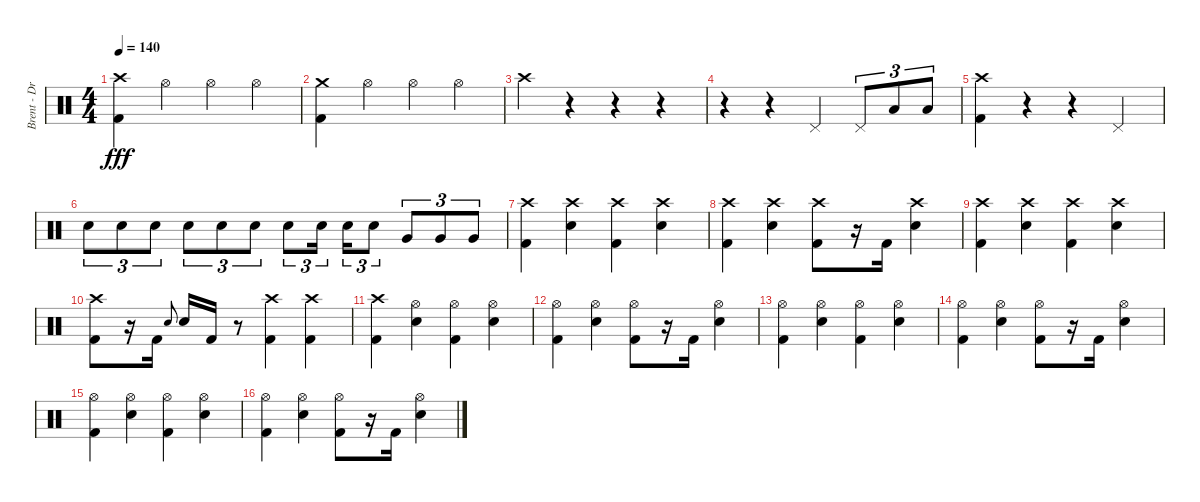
\track ("Brent - Drums" "Brent - Dr") {instrument percussion}
\staff {score}
\articulation defaults
\ts (4 4)
\tempo 140
\clef neutral
\ks c
("Crash high (hit)" "Kick (hit) 2").4{dy fff} "Hi-Hat (open)".4 "Hi-Hat (open)".4 "Hi-Hat (open)".4 |
("Crash medium (hit)" "Kick (hit) 2").4 "Hi-Hat (open)".4 "Hi-Hat (open)".4 "Hi-Hat (open)".4 |
"Crash high (hit)".4 r.4 r.4 r.4 |
r.4 r.4 "Pedal Hi-Hat (hit)".4 "Pedal Hi-Hat (hit)".8{tu (3 2)} "Low Tom (hit)".8{tu (3 2)} "Low Tom (hit)".8{tu (3 2)} |
("Crash high (hit)" "Kick (hit) 2").4 r.4 r.4 "Pedal Hi-Hat (hit)".4 |
"Snare (hit) 2".8{tu (3 2)} "Snare (hit) 2".8{tu (3 2)} "Snare (hit) 2".8{tu (3 2)} "Snare (hit) 2".8{tu (3 2)} "Snare (hit) 2".8{tu (3 2)} "Snare (hit) 2".8{tu (3 2)} "Snare (hit) 2".8{tu (3 2)} "Snare (hit) 2".16{tu (3 2) beam splitsecondary} "Snare (hit) 2".16{tu (3 2)} "Snare (hit) 2".8{tu (3 2)} "Very Low Tom (hit)".8{tu (3 2)} "Very Low Tom (hit)".8{tu (3 2)} "Very Low Tom (hit)".8{tu (3 2)} |
("Crash high (hit)" "Kick (hit) 2").4 ("Crash high (hit)" "Snare (hit) 2").4 ("Crash high (hit)" "Kick (hit) 2").4 ("Crash high (hit)" "Snare (hit) 2").4 |
("Crash high (hit)" "Kick (hit) 2").4 ("Crash high (hit)" "Snare (hit) 2").4 ("Crash high (hit)" "Kick (hit) 2").8 r.16 "Kick (hit) 2".16 ("Crash high (hit)" "Snare (hit) 2").4 |
("Crash high (hit)" "Kick (hit) 2").4 ("Crash high (hit)" "Snare (hit) 2").4 ("Crash high (hit)" "Kick (hit) 2").4 ("Crash high (hit)" "Snare (hit) 2").4 |
("Crash high (hit)" "Kick (hit) 2").8 r.16 "Kick (hit) 2".16 "Snare (hit) 2".8{gr onbeat} "Snare (hit) 2".16 "Kick (hit) 2".16 r.8 ("Crash high (hit)" "Kick (hit) 2").4 ("Crash high (hit)" "Kick (hit) 2").4 |
("Crash high (hit)" "Kick (hit) 2").4 ("Hi-Hat (open)" "Snare (hit) 2").4 ("Hi-Hat (open)" "Kick (hit) 2").4 ("Hi-Hat (open)" "Snare (hit) 2").4 |
("Hi-Hat (open)" "Kick (hit) 2").4 ("Hi-Hat (open)" "Snare (hit) 2").4 ("Hi-Hat (open)" "Kick (hit) 2").8 r.16 "Kick (hit) 2".16 ("Hi-Hat (open)" "Snare (hit) 2").4 |
("Hi-Hat (open)" "Kick (hit) 2").4 ("Hi-Hat (open)" "Snare (hit) 2").4 ("Hi-Hat (open)" "Kick (hit) 2").4 ("Hi-Hat (open)" "Snare (hit) 2").4 |
("Hi-Hat (open)" "Kick (hit) 2").4 ("Hi-Hat (open)" "Snare (hit) 2").4 ("Hi-Hat (open)" "Kick (hit) 2").8 r.16 "Kick (hit) 2".16 ("Hi-Hat (open)" "Snare (hit) 2").4 |
("Hi-Hat (open)" "Kick (hit) 2").4 ("Hi-Hat (open)" "Snare (hit) 2").4 ("Hi-Hat (open)" "Kick (hit) 2").4 ("Hi-Hat (open)" "Snare (hit) 2").4 |
("Hi-Hat (open)" "Kick (hit) 2").4 ("Hi-Hat (open)" "Snare (hit) 2").4 ("Hi-Hat (open)" "Kick (hit) 2").8 r.16 "Kick (hit) 2".16 ("Hi-Hat (open)" "Snare (hit) 2").4
